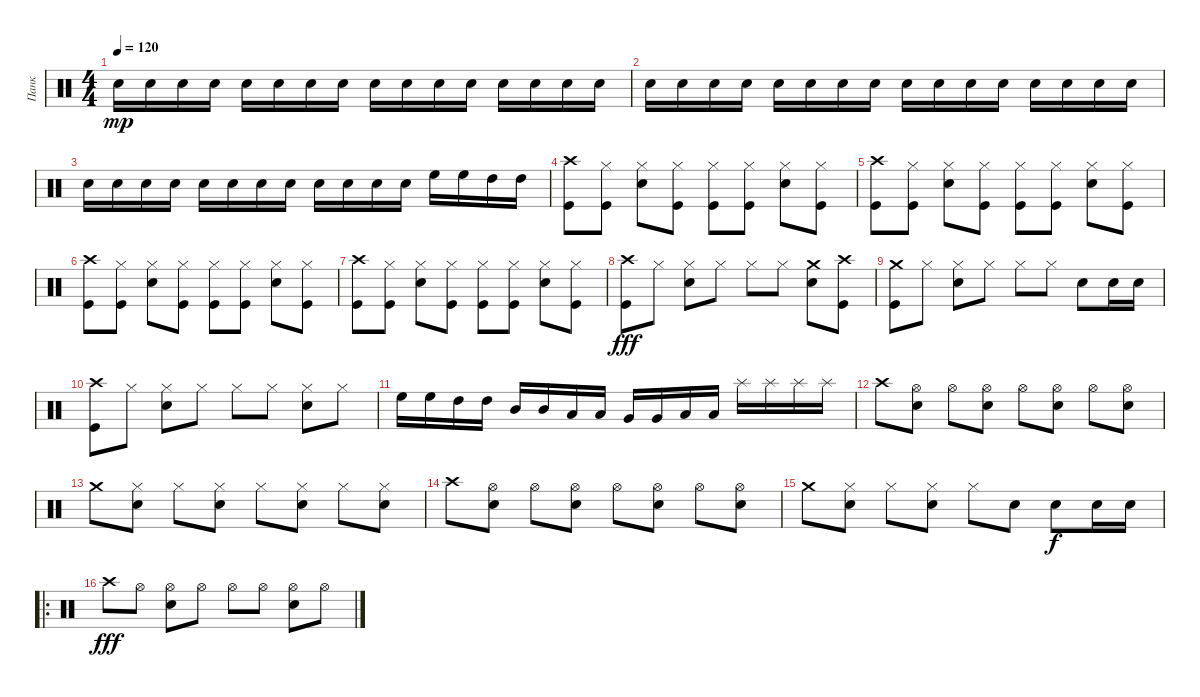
\track ("Панк" "Панк") {instrument percussion}
\staff {score}
\articulation defaults
\ts (4 4)
\tempo 120
\clef neutral
\ks c "Electric Snare (hit)".16{dy mp} "Electric Snare (hit)".16 "Electric Snare (hit)".16 "Electric Snare (hit)".16 "Electric Snare (hit)".16 "Electric Snare (hit)".16 "Electric Snare (hit)".16 "Electric Snare (hit)".16 "Electric Snare (hit)".16 "Electric Snare (hit)".16 "Electric Snare (hit)".16 "Electric Snare (hit)".16 "Electric Snare (hit)".16 "Electric Snare (hit)".16 "Electric Snare (hit)".16 "Electric Snare (hit)".16
|
"Electric Snare (hit)".16 "Electric Snare (hit)".16 "Electric Snare (hit)".16 "Electric Snare (hit)".16 "Electric Snare (hit)".16 "Electric Snare (hit)".16 "Electric Snare (hit)".16 "Electric Snare (hit)".16 "Electric Snare (hit)".16 "Electric Snare (hit)".16 "Electric Snare (hit)".16 "Electric Snare (hit)".16 "Electric Snare (hit)".16 "Electric Snare (hit)".16 "Electric Snare (hit)".16 "Electric Snare (hit)".16 |
"Electric Snare (hit)".16 "Electric Snare (hit)".16 "Electric Snare (hit)".16 "Electric Snare (hit)".16 "Electric Snare (hit)".16 "Electric Snare (hit)".16 "Electric Snare (hit)".16 "Electric Snare (hit)".16 "Electric Snare (hit)".16 "Electric Snare (hit)".16 "Electric Snare (hit)".16 "Electric Snare (hit)".16 "High Floor Tom (hit)".16 "High Floor Tom (hit)".16 "High Tom (hit)".16 "High Tom (hit)".16 |
("Crash high (hit)" "Kick (hit)").8 ("Hi-Hat (closed)" "Kick (hit)").8 ("Hi-Hat (closed)" "Electric Snare (hit)").8 ("Hi-Hat (closed)" "Kick (hit)").8 ("Hi-Hat (closed)" "Kick (hit)").8 ("Hi-Hat (closed)" "Kick (hit)").8 ("Hi-Hat (closed)" "Electric Snare (hit)").8 ("Hi-Hat (closed)" "Kick (hit)").8 |
("Crash high (hit)" "Kick (hit)").8 ("Hi-Hat (closed)" "Kick (hit)").8 ("Hi-Hat (closed)" "Electric Snare (hit)").8 ("Hi-Hat (closed)" "Kick (hit)").8 ("Hi-Hat (closed)" "Kick (hit)").8 ("Hi-Hat (closed)" "Kick (hit)").8 ("Hi-Hat (closed)" "Electric Snare (hit)").8 ("Hi-Hat (closed)" "Kick (hit)").8 |
("Crash high (hit)" "Kick (hit)").8 ("Hi-Hat (closed)" "Kick (hit)").8 ("Hi-Hat (closed)" "Electric Snare (hit)").8 ("Hi-Hat (closed)" "Kick (hit)").8 ("Hi-Hat (closed)" "Kick (hit)").8 ("Hi-Hat (closed)" "Kick (hit)").8 ("Hi-Hat (closed)" "Electric Snare (hit)").8 ("Hi-Hat (closed)" "Kick (hit)").8 |
("Crash high (hit)" "Kick (hit)").8 ("Hi-Hat (closed)" "Kick (hit)").8 ("Hi-Hat (closed)" "Electric Snare (hit)").8 ("Hi-Hat (closed)" "Kick (hit)").8 ("Hi-Hat (closed)" "Kick (hit)").8 ("Hi-Hat (closed)" "Kick (hit)").8 ("Hi-Hat (closed)" "Electric Snare (hit)").8 ("Hi-Hat (closed)" "Kick (hit)").8 |
("Crash high (hit)" "Kick (hit)").8{dy fff} "Hi-Hat (closed)".8 ("Hi-Hat (closed)" "Electric Snare (hit)").8 "Hi-Hat (closed)".8 "Hi-Hat (closed)".8 "Hi-Hat (closed)".8 ("Crash medium (hit)" "Electric Snare (hit)").8 ("Crash high (hit)" "Kick (hit)").8 |
("Crash medium (hit)" "Kick (hit)").8 "Hi-Hat (closed)".8 ("Hi-Hat (closed)" "Electric Snare (hit)").8 "Hi-Hat (closed)".8 "Hi-Hat (closed)".8 "Hi-Hat (closed)".8 "Electric Snare (hit)".8 "Electric Snare (hit)".16 "Electric Snare (hit)".16 |
("Crash high (hit)" "Kick (hit)").8 "Hi-Hat (closed)".8 ("Hi-Hat (closed)" "Electric Snare (hit)").8 "Hi-Hat (closed)".8 "Hi-Hat (closed)".8 "Hi-Hat (closed)".8 ("Hi-Hat (closed)" "Electric Snare (hit)").8 "Hi-Hat (closed)".8 |
"High Floor Tom (hit)".16 "High Floor Tom (hit)".16 "High Tom (hit)".16 "High Tom (hit)".16 "Mid Tom (hit)".16 "Mid Tom (hit)".16 "Low Tom (hit)".16 "Low Tom (hit)".16 "Very Low Tom (hit)".16 "Very Low Tom (hit)".16 "Low Floor Tom (hit)".16 "Low Floor Tom (hit)".16 "Splash (hit)".16 "Splash (hit)".16 "Splash (hit)".16 "Splash (hit)".16 |
"Crash high (hit)".8 ("Hi-Hat (open)" "Electric Snare (hit)").8 "Hi-Hat (open)".8 ("Hi-Hat (open)" "Electric Snare (hit)").8 "Hi-Hat (open)".8 ("Hi-Hat (open)" "Electric Snare (hit)").8 "Hi-Hat (open)".8 ("Hi-Hat (open)" "Electric Snare (hit)").8 |
"Crash medium (hit)".8 ("Hi-Hat (closed)" "Electric Snare (hit)").8 "Hi-Hat (closed)".8 ("Hi-Hat (closed)" "Electric Snare (hit)").8 "Hi-Hat (closed)".8 ("Hi-Hat (closed)" "Electric Snare (hit)").8 "Hi-Hat (closed)".8 ("Hi-Hat (closed)" "Electric Snare (hit)").8 |
"Crash high (hit)".8 ("Hi-Hat (open)" "Electric Snare (hit)").8 "Hi-Hat (open)".8 ("Hi-Hat (open)" "Electric Snare (hit)").8 "Hi-Hat (open)".8 ("Hi-Hat (open)" "Electric Snare (hit)").8 "Hi-Hat (open)".8 ("Hi-Hat (open)" "Electric Snare (hit)").8 |
"Crash medium (hit)".8 ("Hi-Hat (closed)" "Electric Snare (hit)").8 "Hi-Hat (closed)".8 ("Hi-Hat (closed)" "Electric Snare (hit)").8 "Hi-Hat (closed)".8 "Electric Snare (hit)".8 "Electric Snare (hit)".8{dy f} "Electric Snare (hit)".16 "Electric Snare (hit)".16 |
\ro "Crash high (hit)".8{dy fff} "Hi-Hat (open)".8
("Hi-Hat (open)" "Electric Snare (hit)").8 "Hi-Hat (open)".8 "Hi-Hat (open)".8 "Hi-Hat (open)".8 ("Hi-Hat (open)" "Electric Snare (hit)").8 "Hi-Hat (open)".8
